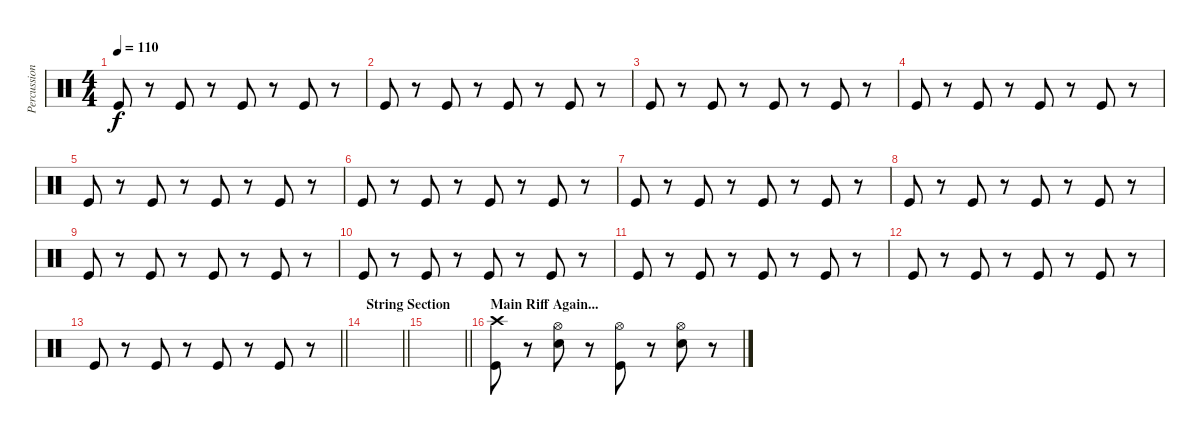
\track ("Percussion" "Percussion") {instrument percussion}
\staff {score}
\articulation defaults
\ts (4 4)
\tempo 110
\clef neutral
\ks c "Kick (hit)".8{dy f}
r.8 "Kick (hit)".8 r.8 "Kick (hit)".8 r.8 "Kick (hit)".8 r.8 |
"Kick (hit)".8 r.8 "Kick (hit)".8 r.8 "Kick (hit)".8 r.8 "Kick (hit)".8 r.8 |
"Kick (hit)".8 r.8 "Kick (hit)".8 r.8 "Kick (hit)".8 r.8 "Kick (hit)".8 r.8 |
"Kick (hit)".8 r.8 "Kick (hit)".8 r.8 "Kick (hit)".8 r.8 "Kick (hit)".8 r.8 |
"Kick (hit)".8 r.8 "Kick (hit)".8 r.8 "Kick (hit)".8 r.8 "Kick (hit)".8 r.8 |
"Kick (hit)".8 r.8 "Kick (hit)".8 r.8 "Kick (hit)".8 r.8 "Kick (hit)".8 r.8 |
"Kick (hit)".8 r.8 "Kick (hit)".8 r.8 "Kick (hit)".8 r.8 "Kick (hit)".8 r.8 |
"Kick (hit)".8 r.8 "Kick (hit)".8 r.8 "Kick (hit)".8 r.8 "Kick (hit)".8 r.8 |
"Kick (hit)".8 r.8 "Kick (hit)".8 r.8 "Kick (hit)".8 r.8 "Kick (hit)".8 r.8 |
"Kick (hit)".8 r.8 "Kick (hit)".8 r.8 "Kick (hit)".8 r.8 "Kick (hit)".8 r.8 |
"Kick (hit)".8 r.8 "Kick (hit)".8 r.8 "Kick (hit)".8 r.8 "Kick (hit)".8 r.8 |
"Kick (hit)".8 r.8 "Kick (hit)".8 r.8 "Kick (hit)".8 r.8 "Kick (hit)".8 r.8 |
\barLineRight lightlight "Kick (hit)".8
r.8 "Kick (hit)".8 r.8 "Kick (hit)".8 r.8 "Kick (hit)".8 r.8 |
\section ("" "String Section")
\barLineRight lightlight
|
\section ("" "")
\barLineRight lightlight
|
\section ("" "Main Riff Again...")
("Crash high (hit)" "Kick (hit)").8 r.8 ("Hi-Hat (open)" "Snare (hit) 2").8 r.8 ("Hi-Hat (open)" "Kick (hit)").8 r.8 ("Hi-Hat (open)" "Snare (hit) 2").8 r.8
